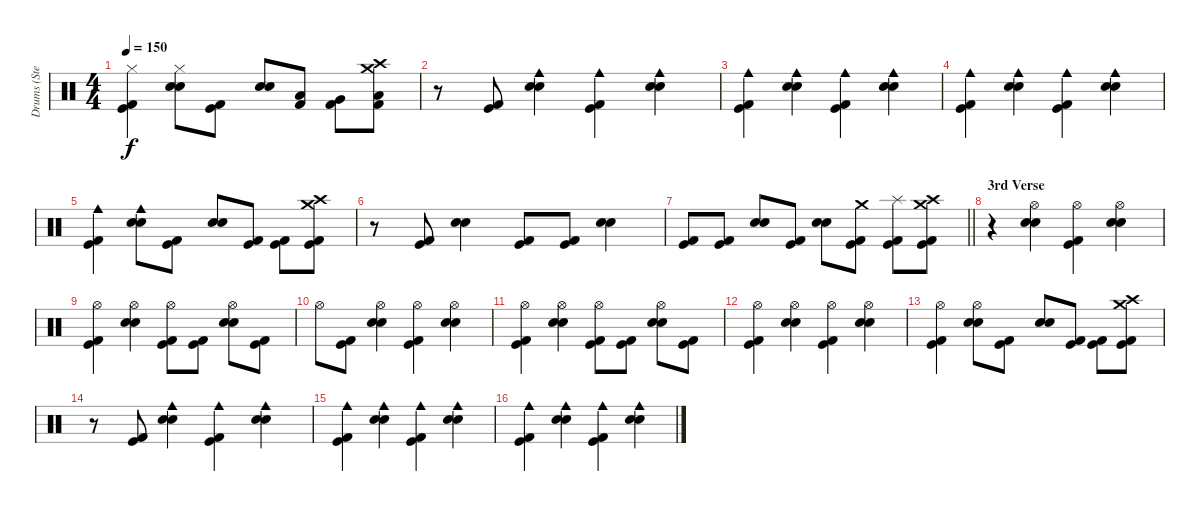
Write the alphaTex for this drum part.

\track ("Drums (Steven)" "Drums (Ste") {instrument percussion}
\staff {score}
\articulation defaults
\ts (4 4)
\tempo 150
\clef neutral
\ks c
("Kick (hit) 2" "Kick (hit)" "Hi-Hat (closed)").4{dy f} ("Electric Snare (hit)" "Snare (hit) 2" "Hi-Hat (closed)").8 ("Kick (hit) 2" "Kick (hit)").8 ("Electric Snare (hit)" "Snare (hit) 2").8 ("Kick (hit) 2" "Low Tom (hit)").8 ("Kick (hit) 2" "Very Low Tom (hit)").8 ("Kick (hit) 2" "Low Floor Tom (hit)" "Crash medium (hit)" "Crash high (hit)").8 |
r.8 ("Kick (hit) 2" "Kick (hit)").8 ("Electric Snare (hit)" "Snare (hit) 2" "Cowbell medium (hit)").4 ("Kick (hit) 2" "Kick (hit)" "Cowbell medium (hit)").4 ("Electric Snare (hit)" "Snare (hit) 2" "Cowbell medium (hit)").4 |
("Kick (hit) 2" "Kick (hit)" "Cowbell medium (hit)").4 ("Electric Snare (hit)" "Snare (hit) 2" "Cowbell medium (hit)").4 ("Kick (hit) 2" "Kick (hit)" "Cowbell medium (hit)").4 ("Electric Snare (hit)" "Snare (hit) 2" "Cowbell medium (hit)").4 |
("Kick (hit) 2" "Kick (hit)" "Cowbell medium (hit)").4 ("Electric Snare (hit)" "Snare (hit) 2" "Cowbell medium (hit)").4 ("Kick (hit) 2" "Kick (hit)" "Cowbell medium (hit)").4 ("Electric Snare (hit)" "Snare (hit) 2" "Cowbell medium (hit)").4 |
("Kick (hit) 2" "Kick (hit)" "Cowbell medium (hit)").4 ("Electric Snare (hit)" "Snare (hit) 2" "Cowbell medium (hit)").8 ("Kick (hit) 2" "Kick (hit)").8 ("Electric Snare (hit)" "Snare (hit) 2").8 ("Kick (hit) 2" "Kick (hit)").8 ("Kick (hit) 2" "Kick (hit)").8 ("Kick (hit) 2" "Kick (hit)" "Crash medium (hit)" "Crash high (hit)").8 |
r.8 ("Kick (hit) 2" "Kick (hit)").8 ("Electric Snare (hit)" "Snare (hit) 2").4 ("Kick (hit) 2" "Kick (hit)").8 ("Kick (hit) 2" "Kick (hit)").8 ("Electric Snare (hit)" "Snare (hit) 2").4 |
\barLineRight lightlight
("Kick (hit) 2" "Kick (hit)").8 ("Kick (hit) 2" "Kick (hit)").8 ("Electric Snare (hit)" "Snare (hit) 2").8 ("Kick (hit) 2" "Kick (hit)").8 ("Electric Snare (hit)" "Snare (hit) 2").8 ("Kick (hit) 2" "Kick (hit)" "Crash medium (hit)").8 ("Kick (hit) 2" "Kick (hit)" "Splash (hit)").8 ("Kick (hit) 2" "Kick (hit)" "Crash high (hit)" "Crash medium (hit)").8 |
\section ("" "3rd Verse")
r.4 ("Electric Snare (hit)" "Snare (hit) 2" "Hi-Hat (open)").4 ("Kick (hit) 2" "Kick (hit)" "Hi-Hat (open)").4 ("Electric Snare (hit)" "Snare (hit) 2" "Hi-Hat (open)").4 |
("Kick (hit) 2" "Kick (hit)" "Hi-Hat (open)").4 ("Electric Snare (hit)" "Snare (hit) 2" "Hi-Hat (open)").4 ("Kick (hit) 2" "Kick (hit)" "Hi-Hat (open)").8 ("Kick (hit) 2" "Kick (hit)").8 ("Electric Snare (hit)" "Snare (hit) 2" "Hi-Hat (open)").8 ("Kick (hit) 2" "Kick (hit)").8 |
"Hi-Hat (open)".8 ("Kick (hit) 2" "Kick (hit)").8 ("Electric Snare (hit)" "Snare (hit) 2" "Hi-Hat (open)").4 ("Kick (hit) 2" "Kick (hit)" "Hi-Hat (open)").4 ("Electric Snare (hit)" "Snare (hit) 2" "Hi-Hat (open)").4 |
("Kick (hit) 2" "Kick (hit)" "Hi-Hat (open)").4 ("Electric Snare (hit)" "Snare (hit) 2" "Hi-Hat (open)").4 ("Kick (hit) 2" "Kick (hit)" "Hi-Hat (open)").8 ("Kick (hit) 2" "Kick (hit)").8 ("Electric Snare (hit)" "Snare (hit) 2" "Hi-Hat (open)").8 ("Kick (hit) 2" "Kick (hit)").8 |
("Kick (hit) 2" "Kick (hit)" "Hi-Hat (open)").4 ("Electric Snare (hit)" "Snare (hit) 2" "Hi-Hat (open)").4 ("Kick (hit) 2" "Kick (hit)" "Hi-Hat (open)").4 ("Electric Snare (hit)" "Snare (hit) 2" "Hi-Hat (open)").4 |
("Kick (hit) 2" "Kick (hit)" "Hi-Hat (open)").4 ("Electric Snare (hit)" "Snare (hit) 2" "Hi-Hat (open)").8 ("Kick (hit) 2" "Kick (hit)").8 ("Electric Snare (hit)" "Snare (hit) 2").8 ("Kick (hit) 2" "Kick (hit)").8 ("Kick (hit) 2" "Kick (hit)").8 ("Kick (hit) 2" "Kick (hit)" "Crash medium (hit)" "Crash high (hit)").8 |
r.8 ("Kick (hit) 2" "Kick (hit)").8 ("Electric Snare (hit)" "Snare (hit) 2" "Cowbell medium (hit)").4 ("Kick (hit) 2" "Kick (hit)" "Cowbell medium (hit)").4 ("Electric Snare (hit)" "Snare (hit) 2" "Cowbell medium (hit)").4 |
("Kick (hit) 2" "Kick (hit)" "Cowbell medium (hit)").4 ("Electric Snare (hit)" "Snare (hit) 2" "Cowbell medium (hit)").4 ("Kick (hit) 2" "Kick (hit)" "Cowbell medium (hit)").4 ("Electric Snare (hit)" "Snare (hit) 2" "Cowbell medium (hit)").4 |
("Kick (hit) 2" "Kick (hit)" "Cowbell medium (hit)").4 ("Electric Snare (hit)" "Snare (hit) 2" "Cowbell medium (hit)").4 ("Kick (hit) 2" "Kick (hit)" "Cowbell medium (hit)").4 ("Electric Snare (hit)" "Snare (hit) 2" "Cowbell medium (hit)").4
